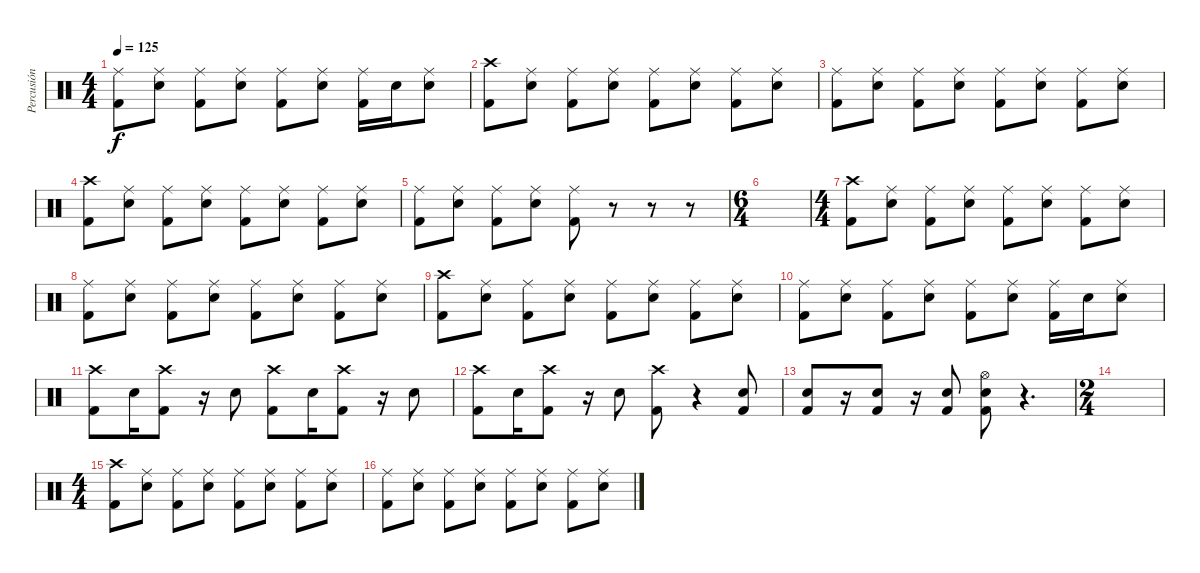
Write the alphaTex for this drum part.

\track ("Percusión" "Percusión") {instrument percussion}
\staff {score}
\articulation defaults
\ts (4 4)
\tempo 125
\clef neutral
\ks c
("Ride (middle)" "Kick (hit) 2").8{dy f} ("Ride (middle)" "Electric Snare (hit)").8 ("Ride (middle)" "Kick (hit) 2").8 ("Ride (middle)" "Electric Snare (hit)").8 ("Ride (middle)" "Kick (hit) 2").8 ("Ride (middle)" "Electric Snare (hit)").8 ("Ride (middle)" "Kick (hit) 2").16 "Electric Snare (hit)".16 ("Ride (middle)" "Electric Snare (hit)").8 |
("Crash high (hit)" "Kick (hit) 2").8 ("Ride (middle)" "Electric Snare (hit)").8 ("Ride (middle)" "Kick (hit) 2").8 ("Ride (middle)" "Electric Snare (hit)").8 ("Ride (middle)" "Kick (hit) 2").8 ("Ride (middle)" "Electric Snare (hit)").8 ("Ride (middle)" "Kick (hit) 2").8 ("Ride (middle)" "Electric Snare (hit)").8 |
("Ride (middle)" "Kick (hit) 2").8 ("Ride (middle)" "Electric Snare (hit)").8 ("Ride (middle)" "Kick (hit) 2").8 ("Ride (middle)" "Electric Snare (hit)").8 ("Ride (middle)" "Kick (hit) 2").8 ("Ride (middle)" "Electric Snare (hit)").8 ("Ride (middle)" "Kick (hit) 2").8 ("Ride (middle)" "Electric Snare (hit)").8 |
("Crash high (hit)" "Kick (hit) 2").8 ("Ride (middle)" "Electric Snare (hit)").8 ("Ride (middle)" "Kick (hit) 2").8 ("Ride (middle)" "Electric Snare (hit)").8 ("Ride (middle)" "Kick (hit) 2").8 ("Ride (middle)" "Electric Snare (hit)").8 ("Ride (middle)" "Kick (hit) 2").8 ("Ride (middle)" "Electric Snare (hit)").8 |
("Ride (middle)" "Kick (hit) 2").8 ("Ride (middle)" "Electric Snare (hit)").8 ("Ride (middle)" "Kick (hit) 2").8 ("Ride (middle)" "Electric Snare (hit)").8 ("Ride (middle)" "Kick (hit) 2").8 r.8 r.8 r.8 |
\ts (6 4)
|
\ts (4 4)
("Crash high (hit)" "Kick (hit) 2").8 ("Ride (middle)" "Electric Snare (hit)").8 ("Ride (middle)" "Kick (hit) 2").8 ("Ride (middle)" "Electric Snare (hit)").8 ("Ride (middle)" "Kick (hit) 2").8 ("Ride (middle)" "Electric Snare (hit)").8 ("Ride (middle)" "Kick (hit) 2").8 ("Ride (middle)" "Electric Snare (hit)").8 |
("Ride (middle)" "Kick (hit) 2").8 ("Ride (middle)" "Electric Snare (hit)").8 ("Ride (middle)" "Kick (hit) 2").8 ("Ride (middle)" "Electric Snare (hit)").8 ("Ride (middle)" "Kick (hit) 2").8 ("Ride (middle)" "Electric Snare (hit)").8 ("Ride (middle)" "Kick (hit) 2").8 ("Ride (middle)" "Electric Snare (hit)").8 |
("Crash high (hit)" "Kick (hit) 2").8 ("Ride (middle)" "Electric Snare (hit)").8 ("Ride (middle)" "Kick (hit) 2").8 ("Ride (middle)" "Electric Snare (hit)").8 ("Ride (middle)" "Kick (hit) 2").8 ("Ride (middle)" "Electric Snare (hit)").8 ("Ride (middle)" "Kick (hit) 2").8 ("Ride (middle)" "Electric Snare (hit)").8 |
("Ride (middle)" "Kick (hit) 2").8 ("Ride (middle)" "Electric Snare (hit)").8 ("Ride (middle)" "Kick (hit) 2").8 ("Ride (middle)" "Electric Snare (hit)").8 ("Ride (middle)" "Kick (hit) 2").8 ("Ride (middle)" "Electric Snare (hit)").8 ("Ride (middle)" "Kick (hit) 2").16 "Electric Snare (hit)".16 ("Ride (middle)" "Electric Snare (hit)").8 |
("Crash high (hit)" "Kick (hit) 2").8 "Electric Snare (hit)".16 ("Crash high (hit)" "Kick (hit) 2").8 r.16 "Electric Snare (hit)".8 ("Crash high (hit)" "Kick (hit) 2").8 "Electric Snare (hit)".16 ("Crash high (hit)" "Kick (hit) 2").8 r.16 "Electric Snare (hit)".8 |
("Crash high (hit)" "Kick (hit) 2").8 "Electric Snare (hit)".16 ("Crash high (hit)" "Kick (hit) 2").8 r.16 "Electric Snare (hit)".8 ("Crash high (hit)" "Kick (hit) 2").8 r.4 ("Electric Snare (hit)" "Kick (hit) 2").8 |
("Electric Snare (hit)" "Kick (hit) 2").8 r.16 ("Electric Snare (hit)" "Kick (hit) 2").8 r.16 ("Electric Snare (hit)" "Kick (hit) 2").8 ("Kick (hit) 2" "Electric Snare (hit)" "Hi-Hat (open)").8 r.4{d} |
\ts (2 4)
|
\ts (4 4)
("Crash high (hit)" "Kick (hit) 2").8 ("Ride (middle)" "Electric Snare (hit)").8 ("Ride (middle)" "Kick (hit) 2").8 ("Ride (middle)" "Electric Snare (hit)").8 ("Ride (middle)" "Kick (hit) 2").8 ("Ride (middle)" "Electric Snare (hit)").8 ("Ride (middle)" "Kick (hit) 2").8 ("Ride (middle)" "Electric Snare (hit)").8 |
("Ride (middle)" "Kick (hit) 2").8 ("Ride (middle)" "Electric Snare (hit)").8 ("Ride (middle)" "Kick (hit) 2").8 ("Ride (middle)" "Electric Snare (hit)").8 ("Ride (middle)" "Kick (hit) 2").8 ("Ride (middle)" "Electric Snare (hit)").8 ("Ride (middle)" "Kick (hit) 2").8 ("Ride (middle)" "Electric Snare (hit)").8
